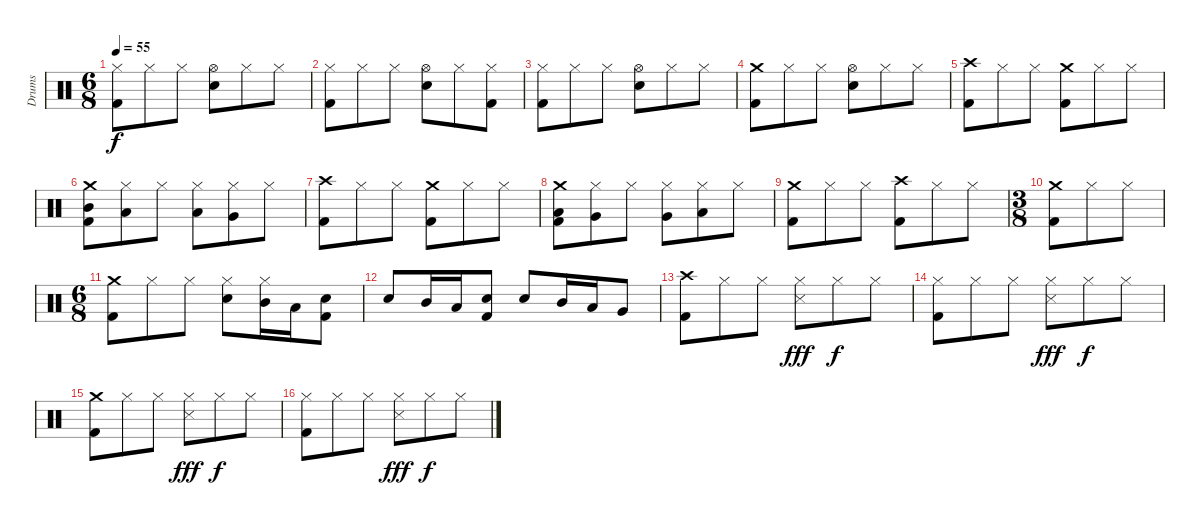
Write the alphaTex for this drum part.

\track ("Drums" "Drums") {instrument percussion}
\staff {score}
\articulation defaults
\ts (6 8)
\tempo 55
\clef neutral
\ks c
("Hi-Hat (closed)" "Kick (hit) 2").8{dy f} "Hi-Hat (closed)".8 "Hi-Hat (closed)".8 ("Hi-Hat (open)" "Snare (hit) 2").8 "Hi-Hat (closed)".8 "Hi-Hat (closed)".8 |
("Hi-Hat (closed)" "Kick (hit) 2").8 "Hi-Hat (closed)".8 "Hi-Hat (closed)".8 ("Hi-Hat (open)" "Snare (hit) 2").8 "Hi-Hat (closed)".8 ("Hi-Hat (closed)" "Kick (hit) 2").8 |
("Hi-Hat (closed)" "Kick (hit) 2").8 "Hi-Hat (closed)".8 "Hi-Hat (closed)".8 ("Hi-Hat (open)" "Snare (hit) 2").8 "Hi-Hat (closed)".8 "Hi-Hat (closed)".8 |
("Crash medium (hit)" "Kick (hit) 2").8 "Hi-Hat (closed)".8 "Hi-Hat (closed)".8 ("Hi-Hat (open)" "Snare (hit) 2").8 "Hi-Hat (closed)".8 "Hi-Hat (closed)".8 |
("Crash high (hit)" "Kick (hit) 2").8 "Hi-Hat (closed)".8 "Hi-Hat (closed)".8 ("Crash medium (hit)" "Kick (hit) 2").8 "Hi-Hat (closed)".8 "Hi-Hat (closed)".8 |
("Crash medium (hit)" "Kick (hit) 2" "Mid Tom (hit)").8 ("Hi-Hat (closed)" "Low Tom (hit)").8 "Hi-Hat (closed)".8 ("Hi-Hat (closed)" "Low Tom (hit)").8 ("Hi-Hat (closed)" "Very Low Tom (hit)").8 "Hi-Hat (closed)".8 |
("Crash high (hit)" "Kick (hit) 2").8 "Hi-Hat (closed)".8 "Hi-Hat (closed)".8 ("Crash medium (hit)" "Kick (hit) 2").8 "Hi-Hat (closed)".8 "Hi-Hat (closed)".8 |
("Crash medium (hit)" "Kick (hit) 2" "Low Tom (hit)").8 ("Hi-Hat (closed)" "Very Low Tom (hit)").8 "Hi-Hat (closed)".8 ("Hi-Hat (closed)" "Very Low Tom (hit)").8 ("Hi-Hat (closed)" "Low Floor Tom (hit)").8 "Hi-Hat (closed)".8 |
("Crash medium (hit)" "Kick (hit) 2").8 "Hi-Hat (closed)".8 "Hi-Hat (closed)".8 ("Crash high (hit)" "Kick (hit) 2").8 "Hi-Hat (closed)".8 "Hi-Hat (closed)".8 |
\ts (3 8)
("Crash medium (hit)" "Kick (hit) 2").8 "Hi-Hat (closed)".8 "Hi-Hat (closed)".8 |
\ts (6 8)
("Crash medium (hit)" "Kick (hit) 2").8 "Hi-Hat (closed)".8 "Hi-Hat (closed)".8 ("Hi-Hat (closed)" "Snare (hit) 2").8 ("Hi-Hat (closed)" "Mid Tom (hit)").16 "Low Tom (hit)".16 ("Snare (hit) 2" "Kick (hit) 2").8 |
"Snare (hit) 2".8 "Mid Tom (hit)".16 "Low Tom (hit)".16 ("Snare (hit) 2" "Kick (hit) 2").8 "Snare (hit) 2".8 "Mid Tom (hit)".16 "Low Tom (hit)".16 "Very Low Tom (hit)".8 |
("Crash high (hit)" "Kick (hit) 2").8 "Hi-Hat (closed)".8 "Hi-Hat (closed)".8 ("Hi-Hat (closed)" "Snare (side stick) 3").8{dy fff} "Hi-Hat (closed)".8{dy f} "Hi-Hat (closed)".8 |
("Hi-Hat (closed)" "Kick (hit) 2").8 "Hi-Hat (closed)".8 "Hi-Hat (closed)".8 ("Hi-Hat (closed)" "Snare (side stick) 3").8{dy fff} "Hi-Hat (closed)".8{dy f} "Hi-Hat (closed)".8 |
("Crash medium (hit)" "Kick (hit) 2").8 "Hi-Hat (closed)".8 "Hi-Hat (closed)".8 ("Hi-Hat (closed)" "Snare (side stick) 3").8{dy fff} "Hi-Hat (closed)".8{dy f} "Hi-Hat (closed)".8 |
("Hi-Hat (closed)" "Kick (hit) 2").8 "Hi-Hat (closed)".8 "Hi-Hat (closed)".8 ("Hi-Hat (closed)" "Snare (side stick) 3").8{dy fff} "Hi-Hat (closed)".8{dy f} "Hi-Hat (closed)".8
